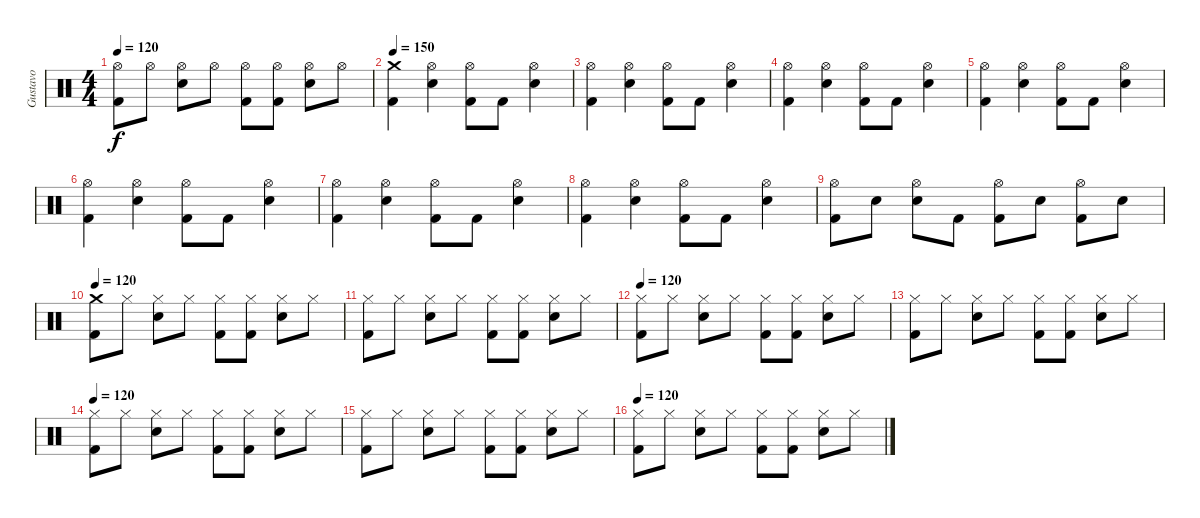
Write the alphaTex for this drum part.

\track ("Gustavo" "Gustavo") {instrument percussion}
\staff {score}
\articulation defaults
\ts (4 4)
\tempo 120
\clef neutral
\ks c
("Hi-Hat (open)" "Kick (hit) 2").8{dy f} "Hi-Hat (open)".8 ("Hi-Hat (open)" "Snare (hit) 2").8 "Hi-Hat (open)".8 ("Hi-Hat (open)" "Kick (hit) 2").8 ("Hi-Hat (open)" "Kick (hit) 2").8 ("Hi-Hat (open)" "Snare (hit) 2").8 "Hi-Hat (open)".8 |
\tempo 150
("Crash medium (hit)" "Kick (hit) 2").4 ("Hi-Hat (open)" "Snare (hit) 2").4 ("Hi-Hat (open)" "Kick (hit) 2").8 "Kick (hit) 2".8 ("Hi-Hat (open)" "Snare (hit) 2").4 |
("Hi-Hat (open)" "Kick (hit) 2").4 ("Hi-Hat (open)" "Snare (hit) 2").4 ("Hi-Hat (open)" "Kick (hit) 2").8 "Kick (hit) 2".8 ("Hi-Hat (open)" "Snare (hit) 2").4 |
("Hi-Hat (open)" "Kick (hit) 2").4 ("Hi-Hat (open)" "Snare (hit) 2").4 ("Hi-Hat (open)" "Kick (hit) 2").8 "Kick (hit) 2".8 ("Hi-Hat (open)" "Snare (hit) 2").4 |
("Hi-Hat (open)" "Kick (hit) 2").4 ("Hi-Hat (open)" "Snare (hit) 2").4 ("Hi-Hat (open)" "Kick (hit) 2").8 "Kick (hit) 2".8 ("Hi-Hat (open)" "Snare (hit) 2").4 |
("Hi-Hat (open)" "Kick (hit) 2").4 ("Hi-Hat (open)" "Snare (hit) 2").4 ("Hi-Hat (open)" "Kick (hit) 2").8 "Kick (hit) 2".8 ("Hi-Hat (open)" "Snare (hit) 2").4 |
("Hi-Hat (open)" "Kick (hit) 2").4 ("Hi-Hat (open)" "Snare (hit) 2").4 ("Hi-Hat (open)" "Kick (hit) 2").8 "Kick (hit) 2".8 ("Hi-Hat (open)" "Snare (hit) 2").4 |
("Hi-Hat (open)" "Kick (hit) 2").4 ("Hi-Hat (open)" "Snare (hit) 2").4 ("Hi-Hat (open)" "Kick (hit) 2").8 "Kick (hit) 2".8 ("Hi-Hat (open)" "Snare (hit) 2").4 |
("Hi-Hat (open)" "Kick (hit) 2").8 "Snare (hit) 2".8 ("Hi-Hat (open)" "Snare (hit) 2").8 "Kick (hit) 2".8 ("Hi-Hat (open)" "Kick (hit) 2").8 "Snare (hit) 2".8 ("Hi-Hat (open)" "Kick (hit) 2").8 "Snare (hit) 2".8 |
\tempo 120
("Crash medium (hit)" "Kick (hit) 2").8 "Hi-Hat (closed)".8 ("Hi-Hat (closed)" "Snare (hit) 2").8 "Hi-Hat (closed)".8 ("Hi-Hat (closed)" "Kick (hit) 2").8 ("Hi-Hat (closed)" "Kick (hit) 2").8 ("Hi-Hat (closed)" "Snare (hit) 2").8 "Hi-Hat (closed)".8 |
("Hi-Hat (closed)" "Kick (hit) 2").8 "Hi-Hat (closed)".8 ("Hi-Hat (closed)" "Snare (hit) 2").8 "Hi-Hat (closed)".8 ("Hi-Hat (closed)" "Kick (hit) 2").8 ("Hi-Hat (closed)" "Kick (hit) 2").8 ("Hi-Hat (closed)" "Snare (hit) 2").8 "Hi-Hat (closed)".8 |
\tempo 120
("Hi-Hat (closed)" "Kick (hit) 2").8 "Hi-Hat (closed)".8 ("Hi-Hat (closed)" "Snare (hit) 2").8 "Hi-Hat (closed)".8 ("Hi-Hat (closed)" "Kick (hit) 2").8 ("Hi-Hat (closed)" "Kick (hit) 2").8 ("Hi-Hat (closed)" "Snare (hit) 2").8 "Hi-Hat (closed)".8 |
("Hi-Hat (closed)" "Kick (hit) 2").8 "Hi-Hat (closed)".8 ("Hi-Hat (closed)" "Snare (hit) 2").8 "Hi-Hat (closed)".8 ("Hi-Hat (closed)" "Kick (hit) 2").8 ("Hi-Hat (closed)" "Kick (hit) 2").8 ("Hi-Hat (closed)" "Snare (hit) 2").8 "Hi-Hat (closed)".8 |
\tempo 120
("Hi-Hat (closed)" "Kick (hit) 2").8 "Hi-Hat (closed)".8 ("Hi-Hat (closed)" "Snare (hit) 2").8 "Hi-Hat (closed)".8 ("Hi-Hat (closed)" "Kick (hit) 2").8 ("Hi-Hat (closed)" "Kick (hit) 2").8 ("Hi-Hat (closed)" "Snare (hit) 2").8 "Hi-Hat (closed)".8 |
("Hi-Hat (closed)" "Kick (hit) 2").8 "Hi-Hat (closed)".8 ("Hi-Hat (closed)" "Snare (hit) 2").8 "Hi-Hat (closed)".8 ("Hi-Hat (closed)" "Kick (hit) 2").8 ("Hi-Hat (closed)" "Kick (hit) 2").8 ("Hi-Hat (closed)" "Snare (hit) 2").8 "Hi-Hat (closed)".8 |
\tempo 120
("Hi-Hat (closed)" "Kick (hit) 2").8 "Hi-Hat (closed)".8 ("Hi-Hat (closed)" "Snare (hit) 2").8 "Hi-Hat (closed)".8 ("Hi-Hat (closed)" "Kick (hit) 2").8 ("Hi-Hat (closed)" "Kick (hit) 2").8 ("Hi-Hat (closed)" "Snare (hit) 2").8 "Hi-Hat (closed)".8
